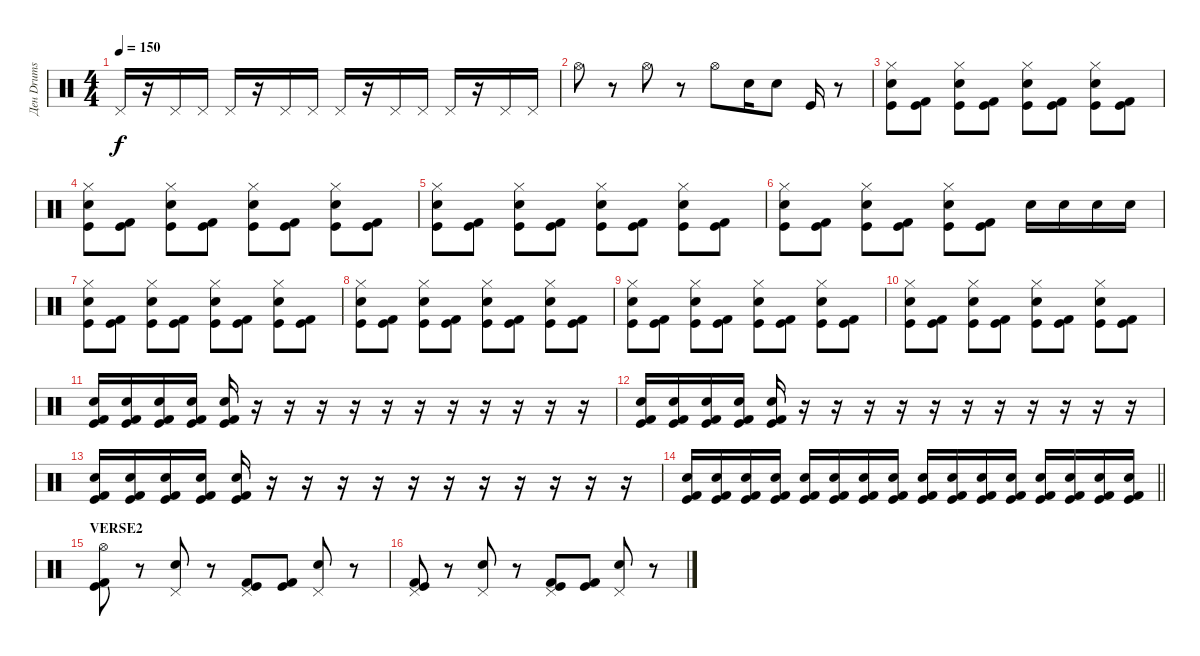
\track ("Ден Drums" "Ден Drums") {instrument percussion}
\staff {score}
\articulation defaults
\ts (4 4)
\tempo 150
\clef neutral
\ks c "Pedal Hi-Hat (hit)".16{dy f}
r.16 "Pedal Hi-Hat (hit)".16 "Pedal Hi-Hat (hit)".16 "Pedal Hi-Hat (hit)".16 r.16 "Pedal Hi-Hat (hit)".16 "Pedal Hi-Hat (hit)".16 "Pedal Hi-Hat (hit)".16 r.16 "Pedal Hi-Hat (hit)".16 "Pedal Hi-Hat (hit)".16 "Pedal Hi-Hat (hit)".16 r.16 "Pedal Hi-Hat (hit)".16 "Pedal Hi-Hat (hit)".16 |
"Hi-Hat (open)".8{volume 13} r.8 "Hi-Hat (open)".8 r.8 "Hi-Hat (open)".8 "Electric Snare (hit)".16 "Electric Snare (hit)".8 "Kick (hit)".16 r.8 |
("Hi-Hat (closed)" "Electric Snare (hit)" "Kick (hit)").8 ("Kick (hit)" "Kick (hit) 2").8 ("Hi-Hat (closed)" "Electric Snare (hit)" "Kick (hit)").8 ("Kick (hit)" "Kick (hit) 2").8 ("Hi-Hat (closed)" "Electric Snare (hit)" "Kick (hit)").8 ("Kick (hit)" "Kick (hit) 2").8 ("Hi-Hat (closed)" "Electric Snare (hit)" "Kick (hit)").8 ("Kick (hit)" "Kick (hit) 2").8 |
("Hi-Hat (closed)" "Electric Snare (hit)" "Kick (hit)").8 ("Kick (hit)" "Kick (hit) 2").8 ("Hi-Hat (closed)" "Electric Snare (hit)" "Kick (hit)").8 ("Kick (hit)" "Kick (hit) 2").8 ("Hi-Hat (closed)" "Electric Snare (hit)" "Kick (hit)").8 ("Kick (hit)" "Kick (hit) 2").8 ("Hi-Hat (closed)" "Electric Snare (hit)" "Kick (hit)").8 ("Kick (hit)" "Kick (hit) 2").8 |
("Hi-Hat (closed)" "Electric Snare (hit)" "Kick (hit)").8 ("Kick (hit)" "Kick (hit) 2").8 ("Hi-Hat (closed)" "Electric Snare (hit)" "Kick (hit)").8 ("Kick (hit)" "Kick (hit) 2").8 ("Hi-Hat (closed)" "Electric Snare (hit)" "Kick (hit)").8 ("Kick (hit)" "Kick (hit) 2").8 ("Hi-Hat (closed)" "Electric Snare (hit)" "Kick (hit)").8 ("Kick (hit)" "Kick (hit) 2").8 |
("Hi-Hat (closed)" "Electric Snare (hit)" "Kick (hit)").8 ("Kick (hit)" "Kick (hit) 2").8 ("Hi-Hat (closed)" "Electric Snare (hit)" "Kick (hit)").8 ("Kick (hit)" "Kick (hit) 2").8 ("Hi-Hat (closed)" "Electric Snare (hit)" "Kick (hit)").8 ("Kick (hit)" "Kick (hit) 2").8 "Electric Snare (hit)".16 "Electric Snare (hit)".16 "Electric Snare (hit)".16 "Electric Snare (hit)".16 |
("Hi-Hat (closed)" "Electric Snare (hit)" "Kick (hit)").8 ("Kick (hit)" "Kick (hit) 2").8 ("Hi-Hat (closed)" "Electric Snare (hit)" "Kick (hit)").8 ("Kick (hit)" "Kick (hit) 2").8 ("Hi-Hat (closed)" "Electric Snare (hit)" "Kick (hit)").8 ("Kick (hit)" "Kick (hit) 2").8 ("Hi-Hat (closed)" "Electric Snare (hit)" "Kick (hit)").8 ("Kick (hit)" "Kick (hit) 2").8 |
("Hi-Hat (closed)" "Electric Snare (hit)" "Kick (hit)").8 ("Kick (hit)" "Kick (hit) 2").8 ("Hi-Hat (closed)" "Electric Snare (hit)" "Kick (hit)").8 ("Kick (hit)" "Kick (hit) 2").8 ("Hi-Hat (closed)" "Electric Snare (hit)" "Kick (hit)").8 ("Kick (hit)" "Kick (hit) 2").8 ("Hi-Hat (closed)" "Electric Snare (hit)" "Kick (hit)").8 ("Kick (hit)" "Kick (hit) 2").8 |
("Hi-Hat (closed)" "Electric Snare (hit)" "Kick (hit)").8 ("Kick (hit)" "Kick (hit) 2").8 ("Hi-Hat (closed)" "Electric Snare (hit)" "Kick (hit)").8 ("Kick (hit)" "Kick (hit) 2").8 ("Hi-Hat (closed)" "Electric Snare (hit)" "Kick (hit)").8 ("Kick (hit)" "Kick (hit) 2").8 ("Hi-Hat (closed)" "Electric Snare (hit)" "Kick (hit)").8 ("Kick (hit)" "Kick (hit) 2").8 |
("Hi-Hat (closed)" "Electric Snare (hit)" "Kick (hit)").8 ("Kick (hit)" "Kick (hit) 2").8 ("Hi-Hat (closed)" "Electric Snare (hit)" "Kick (hit)").8 ("Kick (hit)" "Kick (hit) 2").8 ("Hi-Hat (closed)" "Electric Snare (hit)" "Kick (hit)").8 ("Kick (hit)" "Kick (hit) 2").8 ("Hi-Hat (closed)" "Electric Snare (hit)" "Kick (hit)").8 ("Kick (hit)" "Kick (hit) 2").8 |
("Electric Snare (hit)" "Kick (hit)" "Kick (hit) 2").16 ("Electric Snare (hit)" "Kick (hit)" "Kick (hit) 2").16 ("Electric Snare (hit)" "Kick (hit)" "Kick (hit) 2").16 ("Electric Snare (hit)" "Kick (hit)" "Kick (hit) 2").16 ("Electric Snare (hit)" "Kick (hit)" "Kick (hit) 2").16 r.16 r.16 r.16 r.16 r.16 r.16 r.16 r.16 r.16 r.16 r.16 |
("Electric Snare (hit)" "Kick (hit)" "Kick (hit) 2").16 ("Electric Snare (hit)" "Kick (hit)" "Kick (hit) 2").16 ("Electric Snare (hit)" "Kick (hit)" "Kick (hit) 2").16 ("Electric Snare (hit)" "Kick (hit)" "Kick (hit) 2").16 ("Electric Snare (hit)" "Kick (hit)" "Kick (hit) 2").16 r.16 r.16 r.16 r.16 r.16 r.16 r.16 r.16 r.16 r.16 r.16 |
("Electric Snare (hit)" "Kick (hit)" "Kick (hit) 2").16 ("Electric Snare (hit)" "Kick (hit)" "Kick (hit) 2").16 ("Electric Snare (hit)" "Kick (hit)" "Kick (hit) 2").16 ("Electric Snare (hit)" "Kick (hit)" "Kick (hit) 2").16 ("Electric Snare (hit)" "Kick (hit)" "Kick (hit) 2").16 r.16 r.16 r.16 r.16 r.16 r.16 r.16 r.16 r.16 r.16 r.16 |
\barLineRight lightlight
("Electric Snare (hit)" "Kick (hit)" "Kick (hit) 2").16 ("Electric Snare (hit)" "Kick (hit)" "Kick (hit) 2").16 ("Electric Snare (hit)" "Kick (hit)" "Kick (hit) 2").16 ("Electric Snare (hit)" "Kick (hit)" "Kick (hit) 2").16 ("Electric Snare (hit)" "Kick (hit)" "Kick (hit) 2").16 ("Electric Snare (hit)" "Kick (hit)" "Kick (hit) 2").16 ("Electric Snare (hit)" "Kick (hit)" "Kick (hit) 2").16 ("Electric Snare (hit)" "Kick (hit)" "Kick (hit) 2").16 ("Electric Snare (hit)" "Kick (hit)" "Kick (hit) 2").16 ("Electric Snare (hit)" "Kick (hit)" "Kick (hit) 2").16 ("Electric Snare (hit)" "Kick (hit)" "Kick (hit) 2").16 ("Electric Snare (hit)" "Kick (hit)" "Kick (hit) 2").16 ("Electric Snare (hit)" "Kick (hit)" "Kick (hit) 2").16 ("Electric Snare (hit)" "Kick (hit)" "Kick (hit) 2").16 ("Electric Snare (hit)" "Kick (hit)" "Kick (hit) 2").16 ("Electric Snare (hit)" "Kick (hit)" "Kick (hit) 2").16 |
\section ("" "VERSE2")
("Hi-Hat (open)" "Kick (hit)" "Kick (hit) 2").8 r.8 ("Pedal Hi-Hat (hit)" "Electric Snare (hit)").8 r.8 ("Pedal Hi-Hat (hit)" "Kick (hit)" "Kick (hit) 2").8 ("Kick (hit)" "Kick (hit) 2").8 ("Pedal Hi-Hat (hit)" "Electric Snare (hit)").8 r.8 |
("Pedal Hi-Hat (hit)" "Kick (hit)" "Kick (hit) 2").8 r.8 ("Pedal Hi-Hat (hit)" "Electric Snare (hit)").8 r.8 ("Pedal Hi-Hat (hit)" "Kick (hit)" "Kick (hit) 2").8 ("Kick (hit)" "Kick (hit) 2").8 ("Pedal Hi-Hat (hit)" "Electric Snare (hit)").8 r.8
